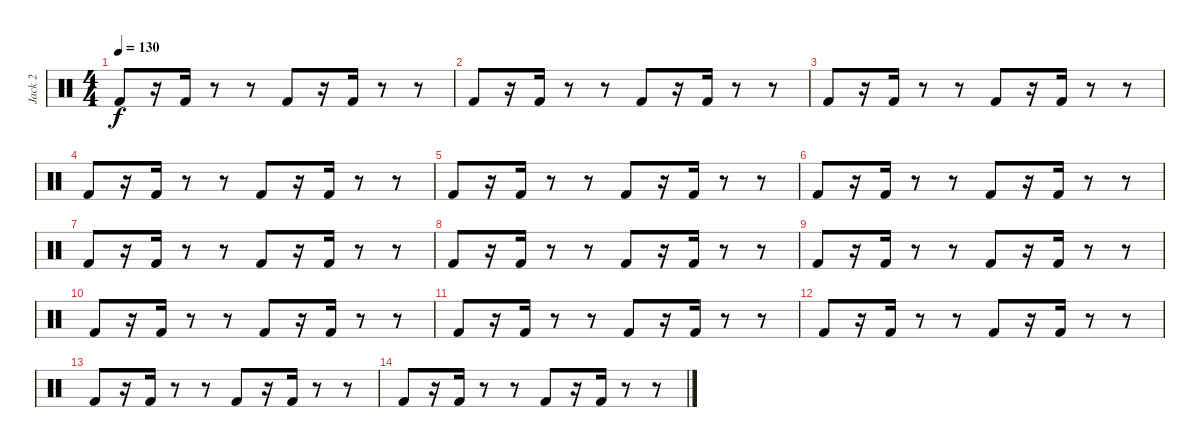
\track ("Jack 2" "Jack 2") {instrument percussion}
\staff {score}
\articulation defaults
\ts (4 4)
\tempo 130
\clef neutral
\ks c "Kick (hit) 2".8{dy f}
r.16 "Kick (hit) 2".16 r.8 r.8 "Kick (hit) 2".8 r.16 "Kick (hit) 2".16 r.8 r.8 |
"Kick (hit) 2".8 r.16 "Kick (hit) 2".16 r.8 r.8 "Kick (hit) 2".8 r.16 "Kick (hit) 2".16 r.8 r.8 |
"Kick (hit) 2".8 r.16 "Kick (hit) 2".16 r.8 r.8 "Kick (hit) 2".8 r.16 "Kick (hit) 2".16 r.8 r.8 |
"Kick (hit) 2".8 r.16 "Kick (hit) 2".16 r.8 r.8 "Kick (hit) 2".8 r.16 "Kick (hit) 2".16 r.8 r.8 |
"Kick (hit) 2".8 r.16 "Kick (hit) 2".16 r.8 r.8 "Kick (hit) 2".8 r.16 "Kick (hit) 2".16 r.8 r.8 |
"Kick (hit) 2".8 r.16 "Kick (hit) 2".16 r.8 r.8 "Kick (hit) 2".8 r.16 "Kick (hit) 2".16 r.8 r.8 |
"Kick (hit) 2".8 r.16 "Kick (hit) 2".16 r.8 r.8 "Kick (hit) 2".8 r.16 "Kick (hit) 2".16 r.8 r.8 |
"Kick (hit) 2".8 r.16 "Kick (hit) 2".16 r.8 r.8 "Kick (hit) 2".8 r.16 "Kick (hit) 2".16 r.8 r.8 |
"Kick (hit) 2".8 r.16 "Kick (hit) 2".16 r.8 r.8 "Kick (hit) 2".8 r.16 "Kick (hit) 2".16 r.8 r.8 |
"Kick (hit) 2".8 r.16 "Kick (hit) 2".16 r.8 r.8 "Kick (hit) 2".8 r.16 "Kick (hit) 2".16 r.8 r.8 |
"Kick (hit) 2".8 r.16 "Kick (hit) 2".16 r.8 r.8 "Kick (hit) 2".8 r.16 "Kick (hit) 2".16 r.8 r.8 |
"Kick (hit) 2".8 r.16 "Kick (hit) 2".16 r.8 r.8 "Kick (hit) 2".8 r.16 "Kick (hit) 2".16 r.8 r.8 |
"Kick (hit) 2".8 r.16 "Kick (hit) 2".16 r.8 r.8 "Kick (hit) 2".8 r.16 "Kick (hit) 2".16 r.8 r.8 |
"Kick (hit) 2".8 r.16 "Kick (hit) 2".16 r.8 r.8 "Kick (hit) 2".8 r.16 "Kick (hit) 2".16 r.8 r.8
